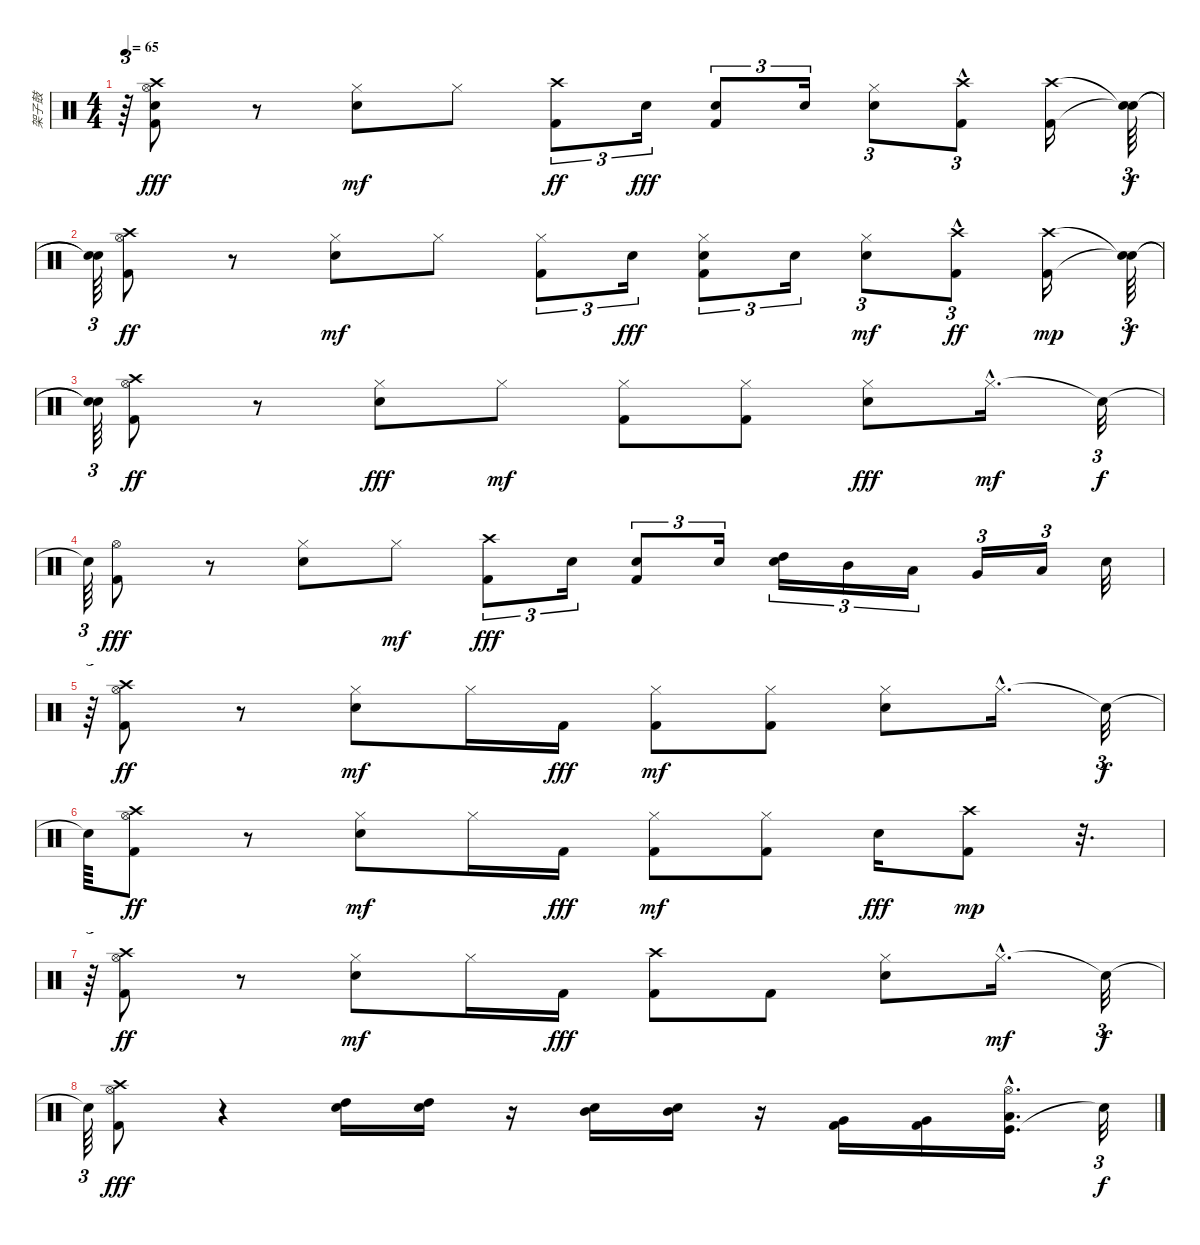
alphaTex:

\track ("架子鼓" "架子鼓") {instrument percussion}
\staff {score}
\articulation defaults
\ts (4 4)
\tempo 65
\clef neutral
\ks c
r.64{tu (3 2) dy fff} ("Crash high (hit)" "Snare (hit) 2" "Hi-Hat (open)" "Kick (hit) 2").8 r.8 ("Snare (hit) 2" "Hi-Hat (closed)").8{dy mf} "Hi-Hat (closed)".8 ("Kick (hit) 2" "Crash high (hit)").8{tu (3 2) dy ff} "Snare (hit) 2".16{tu (3 2) dy fff} ("Snare (hit) 2" "Kick (hit) 2").8{tu (3 2)} "Snare (hit) 2".16{tu (3 2)} ("Hi-Hat (closed)" "Snare (hit) 2").8{tu (3 2)} ("Crash high (hit)"{hac} "Kick (hit) 2"{hac}).8{tu (3 2)} ("Crash high (hit)" "Kick (hit) 2").16 ("Snare (hit)"{t} "Snare (hit)"{t}).64{tu (3 2) dy f} |
("Snare (hit)"{t} "Snare (hit)"{t}).64{tu (3 2)} ("Hi-Hat (open)" "Kick (hit) 2" "Crash high (hit)").8{dy ff} r.8 ("Snare (hit) 2" "Hi-Hat (closed)").8{dy mf} "Hi-Hat (closed)".8 ("Kick (hit) 2" "Hi-Hat (closed)").8{tu (3 2)} "Snare (hit) 2".16{tu (3 2) dy fff} ("Snare (hit) 2" "Hi-Hat (closed)" "Kick (hit) 2").8{tu (3 2)} "Snare (hit) 2".16{tu (3 2)} ("Snare (hit) 2" "Hi-Hat (closed)").8{tu (3 2) dy mf} ("Kick (hit) 2"{hac} "Crash high (hit)"{hac}).8{tu (3 2) dy ff} ("Kick (hit) 2" "Crash high (hit)").16{dy mp} ("Snare (hit)"{t} "Snare (hit)"{t}).64{tu (3 2) dy f} |
("Snare (hit)"{t} "Snare (hit)"{t}).64{tu (3 2)} ("Kick (hit) 2" "Crash high (hit)" "Hi-Hat (open)").8{dy ff} r.8 ("Hi-Hat (closed)" "Snare (hit) 2").8{dy fff} "Hi-Hat (closed)".8{dy mf} ("Kick (hit) 2" "Hi-Hat (closed)").8 ("Kick (hit) 2" "Hi-Hat (closed)").8 ("Hi-Hat (closed)" "Snare (hit) 2").8{dy fff} "Hi-Hat (closed)"{hac}.16{d dy mf} "Snare (hit)"{t}.32{tu (3 2) dy f} |
"Snare (hit)"{t}.64{tu (3 2)} ("Hi-Hat (open)" "Kick (hit) 2").8{dy fff} r.8 ("Hi-Hat (closed)" "Snare (hit) 2").8 "Hi-Hat (closed)".8{dy mf} ("Crash high (hit)" "Kick (hit) 2").8{tu (3 2) dy fff} "Snare (hit) 2".16{tu (3 2)} ("Kick (hit) 2" "Snare (hit) 2").8{tu (3 2)} "Snare (hit) 2".16{tu (3 2)} ("Snare (hit) 2" "High Tom (hit)").16{tu (3 2)} "Mid Tom (hit)".16{tu (3 2)} "Low Tom (hit)".16{tu (3 2)} "Very Low Tom (hit)".16{tu (3 2)} "Low Floor Tom (hit)".16{tu (3 2)} "Electric Snare (hit)".32 |
r.64{tu (3 2)} ("Kick (hit) 2" "Hi-Hat (open)" "Crash high (hit)").8{dy ff} r.8 ("Snare (hit) 2" "Hi-Hat (closed)").8{dy mf} "Hi-Hat (closed)".16 "Kick (hit) 2".16{dy fff} ("Kick (hit) 2" "Hi-Hat (closed)").8{dy mf} ("Kick (hit) 2" "Hi-Hat (closed)").8 ("Snare (hit) 2" "Hi-Hat (closed)").8 "Hi-Hat (closed)"{hac}.16{d} "Snare (hit)"{t}.32{tu (3 2) dy f} |
"Snare (hit)"{t}.64 ("Kick (hit) 2" "Crash high (hit)" "Hi-Hat (open)").8{dy ff} r.8 ("Snare (hit) 2" "Hi-Hat (closed)").8{dy mf} "Hi-Hat (closed)".16 "Kick (hit) 2".16{dy fff} ("Kick (hit) 2" "Hi-Hat (closed)").8{dy mf} ("Kick (hit) 2" "Hi-Hat (closed)").8 "Snare (hit) 2".16{dy fff} ("Kick (hit) 2" "Crash high (hit)").8{dy mp} r.32{d} |
r.64{tu (3 2)} ("Kick (hit) 2" "Hi-Hat (open)" "Crash high (hit)").8{dy ff} r.8 ("Snare (hit) 2" "Hi-Hat (closed)").8{dy mf} "Hi-Hat (closed)".16 "Kick (hit) 2".16{dy fff} ("Crash high (hit)" "Kick (hit) 2").8 "Kick (hit) 2".8 ("Hi-Hat (closed)" "Snare (hit) 2").8 "Hi-Hat (closed)"{hac}.16{d dy mf} "Snare (hit)"{t}.32{tu (3 2) dy f} |
"Snare (hit)"{t}.64{tu (3 2)} ("Hi-Hat (open)" "Crash high (hit)" "Kick (hit) 2").8{dy fff} r.4 ("High Tom (hit)" "Electric Snare (hit)").16 ("Electric Snare (hit)" "High Tom (hit)").16 r.16 ("Snare (hit) 2" "Mid Tom (hit)").16 ("Snare (hit) 2" "Mid Tom (hit)").16 r.16 ("Very Low Tom (hit)" "Kick (hit) 2").16 ("Kick (hit) 2" "Very Low Tom (hit)").16 ("Kick (hit)" "Hi-Hat (open)"{hac} "Low Floor Tom (hit)").16{d} "Snare (hit)"{t}.32{tu (3 2) dy f}
